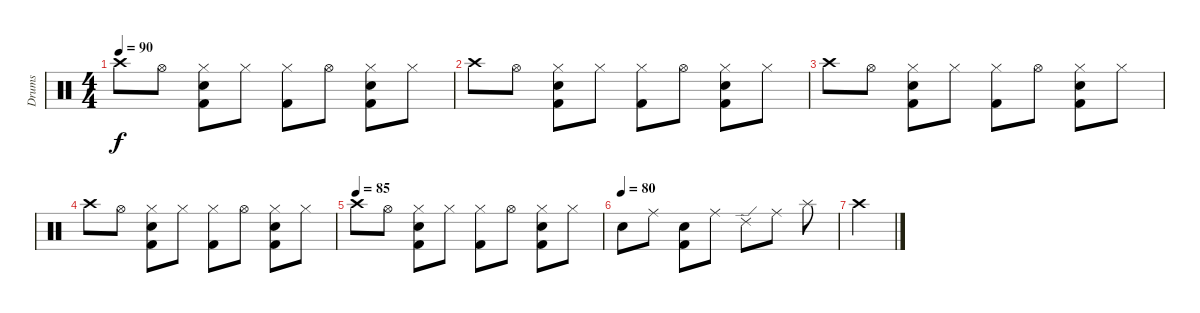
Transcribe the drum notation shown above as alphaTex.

\track ("Drums" "Drums") {instrument percussion}
\staff {score}
\articulation defaults
\ts (4 4)
\tempo 90
\clef neutral
\ks c "Crash high (hit)".8{dy f} "Hi-Hat (open)".8
("Kick (hit) 2" "Snare (hit) 2" "Hi-Hat (closed)").8 "Hi-Hat (closed)".8 ("Kick (hit) 2" "Hi-Hat (closed)").8 "Hi-Hat (open)".8 ("Kick (hit) 2" "Snare (hit) 2" "Hi-Hat (closed)").8 "Hi-Hat (closed)".8 |
"Crash high (hit)".8 "Hi-Hat (open)".8 ("Kick (hit) 2" "Snare (hit) 2" "Hi-Hat (closed)").8 "Hi-Hat (closed)".8 ("Kick (hit) 2" "Hi-Hat (closed)").8 "Hi-Hat (open)".8 ("Kick (hit) 2" "Snare (hit) 2" "Hi-Hat (closed)").8 "Hi-Hat (closed)".8 |
"Crash high (hit)".8 "Hi-Hat (open)".8 ("Kick (hit) 2" "Snare (hit) 2" "Hi-Hat (closed)").8 "Hi-Hat (closed)".8 ("Kick (hit) 2" "Hi-Hat (closed)").8 "Hi-Hat (open)".8 ("Kick (hit) 2" "Snare (hit) 2" "Hi-Hat (closed)").8 "Hi-Hat (closed)".8 |
"Crash high (hit)".8 "Hi-Hat (open)".8 ("Kick (hit) 2" "Snare (hit) 2" "Hi-Hat (closed)").8 "Hi-Hat (closed)".8 ("Kick (hit) 2" "Hi-Hat (closed)").8 "Hi-Hat (open)".8 ("Kick (hit) 2" "Snare (hit) 2" "Hi-Hat (closed)").8 "Hi-Hat (closed)".8 |
\tempo (85)
"Crash high (hit)".8 "Hi-Hat (open)".8 ("Kick (hit) 2" "Snare (hit) 2" "Hi-Hat (closed)").8 "Hi-Hat (closed)".8 ("Kick (hit) 2" "Hi-Hat (closed)").8 "Hi-Hat (open)".8 ("Kick (hit) 2" "Snare (hit) 2" "Hi-Hat (closed)").8 "Hi-Hat (closed)".8 |
\tempo (80)
"Snare (hit) 2".8 "Ride (middle)".8 ("Kick (hit) 2" "Snare (hit) 2").8 "Ride (middle)".8 "Ride (edge) 2".8 "Ride (middle)".8 "Splash (hit)".8 |
"Crash high (hit)".4
